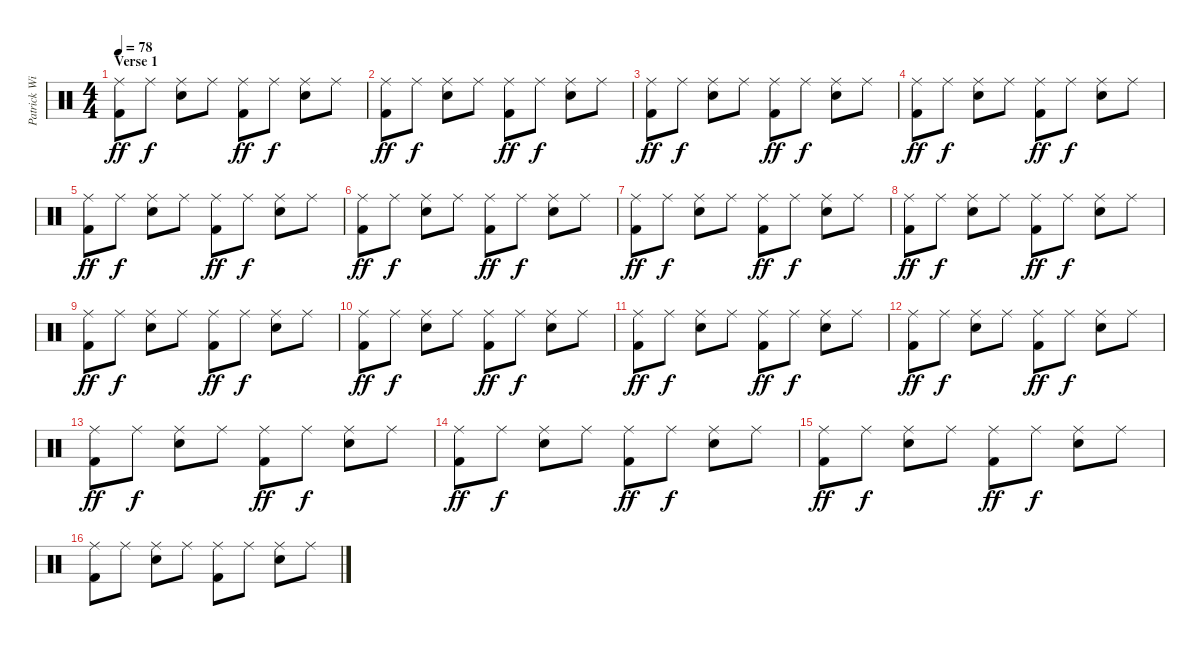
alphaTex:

\track ("Patrick Wilson" "Patrick Wi") {instrument percussion}
\staff {score}
\articulation defaults
\ts (4 4)
\section ("" "Verse 1")
\tempo 78
\clef neutral
\ks c
("Ride (middle)" "Kick (hit) 2").8{dy ff} "Ride (middle)".8{dy f} ("Ride (middle)" "Snare (hit) 2").8 "Ride (middle)".8 ("Ride (middle)" "Kick (hit) 2").8{dy ff} "Ride (middle)".8{dy f} ("Ride (middle)" "Snare (hit) 2").8 "Ride (middle)".8 |
("Ride (middle)" "Kick (hit) 2").8{dy ff} "Ride (middle)".8{dy f} ("Ride (middle)" "Snare (hit) 2").8 "Ride (middle)".8 ("Ride (middle)" "Kick (hit) 2").8{dy ff} "Ride (middle)".8{dy f} ("Ride (middle)" "Snare (hit) 2").8 "Ride (middle)".8 |
("Ride (middle)" "Kick (hit) 2").8{dy ff} "Ride (middle)".8{dy f} ("Ride (middle)" "Snare (hit) 2").8 "Ride (middle)".8 ("Ride (middle)" "Kick (hit) 2").8{dy ff} "Ride (middle)".8{dy f} ("Ride (middle)" "Snare (hit) 2").8 "Ride (middle)".8 |
("Ride (middle)" "Kick (hit) 2").8{dy ff} "Ride (middle)".8{dy f} ("Ride (middle)" "Snare (hit) 2").8 "Ride (middle)".8 ("Ride (middle)" "Kick (hit) 2").8{dy ff} "Ride (middle)".8{dy f} ("Ride (middle)" "Snare (hit) 2").8 "Ride (middle)".8 |
("Ride (middle)" "Kick (hit) 2").8{dy ff} "Ride (middle)".8{dy f} ("Ride (middle)" "Snare (hit) 2").8 "Ride (middle)".8 ("Ride (middle)" "Kick (hit) 2").8{dy ff} "Ride (middle)".8{dy f} ("Ride (middle)" "Snare (hit) 2").8 "Ride (middle)".8 |
("Ride (middle)" "Kick (hit) 2").8{dy ff} "Ride (middle)".8{dy f} ("Ride (middle)" "Snare (hit) 2").8 "Ride (middle)".8 ("Ride (middle)" "Kick (hit) 2").8{dy ff} "Ride (middle)".8{dy f} ("Ride (middle)" "Snare (hit) 2").8 "Ride (middle)".8 |
("Ride (middle)" "Kick (hit) 2").8{dy ff} "Ride (middle)".8{dy f} ("Ride (middle)" "Snare (hit) 2").8 "Ride (middle)".8 ("Ride (middle)" "Kick (hit) 2").8{dy ff} "Ride (middle)".8{dy f} ("Ride (middle)" "Snare (hit) 2").8 "Ride (middle)".8 |
("Ride (middle)" "Kick (hit) 2").8{dy ff} "Ride (middle)".8{dy f} ("Ride (middle)" "Snare (hit) 2").8 "Ride (middle)".8 ("Ride (middle)" "Kick (hit) 2").8{dy ff} "Ride (middle)".8{dy f} ("Ride (middle)" "Snare (hit) 2").8 "Ride (middle)".8 |
("Ride (middle)" "Kick (hit) 2").8{dy ff} "Ride (middle)".8{dy f} ("Ride (middle)" "Snare (hit) 2").8 "Ride (middle)".8 ("Ride (middle)" "Kick (hit) 2").8{dy ff} "Ride (middle)".8{dy f} ("Ride (middle)" "Snare (hit) 2").8 "Ride (middle)".8 |
("Ride (middle)" "Kick (hit) 2").8{dy ff} "Ride (middle)".8{dy f} ("Ride (middle)" "Snare (hit) 2").8 "Ride (middle)".8 ("Ride (middle)" "Kick (hit) 2").8{dy ff} "Ride (middle)".8{dy f} ("Ride (middle)" "Snare (hit) 2").8 "Ride (middle)".8 |
("Ride (middle)" "Kick (hit) 2").8{dy ff} "Ride (middle)".8{dy f} ("Ride (middle)" "Snare (hit) 2").8 "Ride (middle)".8 ("Ride (middle)" "Kick (hit) 2").8{dy ff} "Ride (middle)".8{dy f} ("Ride (middle)" "Snare (hit) 2").8 "Ride (middle)".8 |
("Ride (middle)" "Kick (hit) 2").8{dy ff} "Ride (middle)".8{dy f} ("Ride (middle)" "Snare (hit) 2").8 "Ride (middle)".8 ("Ride (middle)" "Kick (hit) 2").8{dy ff} "Ride (middle)".8{dy f} ("Ride (middle)" "Snare (hit) 2").8 "Ride (middle)".8 |
("Ride (middle)" "Kick (hit) 2").8{dy ff} "Ride (middle)".8{dy f} ("Ride (middle)" "Snare (hit) 2").8 "Ride (middle)".8 ("Ride (middle)" "Kick (hit) 2").8{dy ff} "Ride (middle)".8{dy f} ("Ride (middle)" "Snare (hit) 2").8 "Ride (middle)".8 |
("Ride (middle)" "Kick (hit) 2").8{dy ff} "Ride (middle)".8{dy f} ("Ride (middle)" "Snare (hit) 2").8 "Ride (middle)".8 ("Ride (middle)" "Kick (hit) 2").8{dy ff} "Ride (middle)".8{dy f} ("Ride (middle)" "Snare (hit) 2").8 "Ride (middle)".8 |
("Ride (middle)" "Kick (hit) 2").8{dy ff} "Ride (middle)".8{dy f} ("Ride (middle)" "Snare (hit) 2").8 "Ride (middle)".8 ("Ride (middle)" "Kick (hit) 2").8{dy ff} "Ride (middle)".8{dy f} ("Ride (middle)" "Snare (hit) 2").8 "Ride (middle)".8 |
("Ride (middle)" "Kick (hit) 2").8 "Ride (middle)".8 ("Ride (middle)" "Snare (hit) 2").8 "Ride (middle)".8 ("Ride (middle)" "Kick (hit) 2").8 "Ride (middle)".8 ("Ride (middle)" "Snare (hit) 2").8 "Ride (middle)".8
